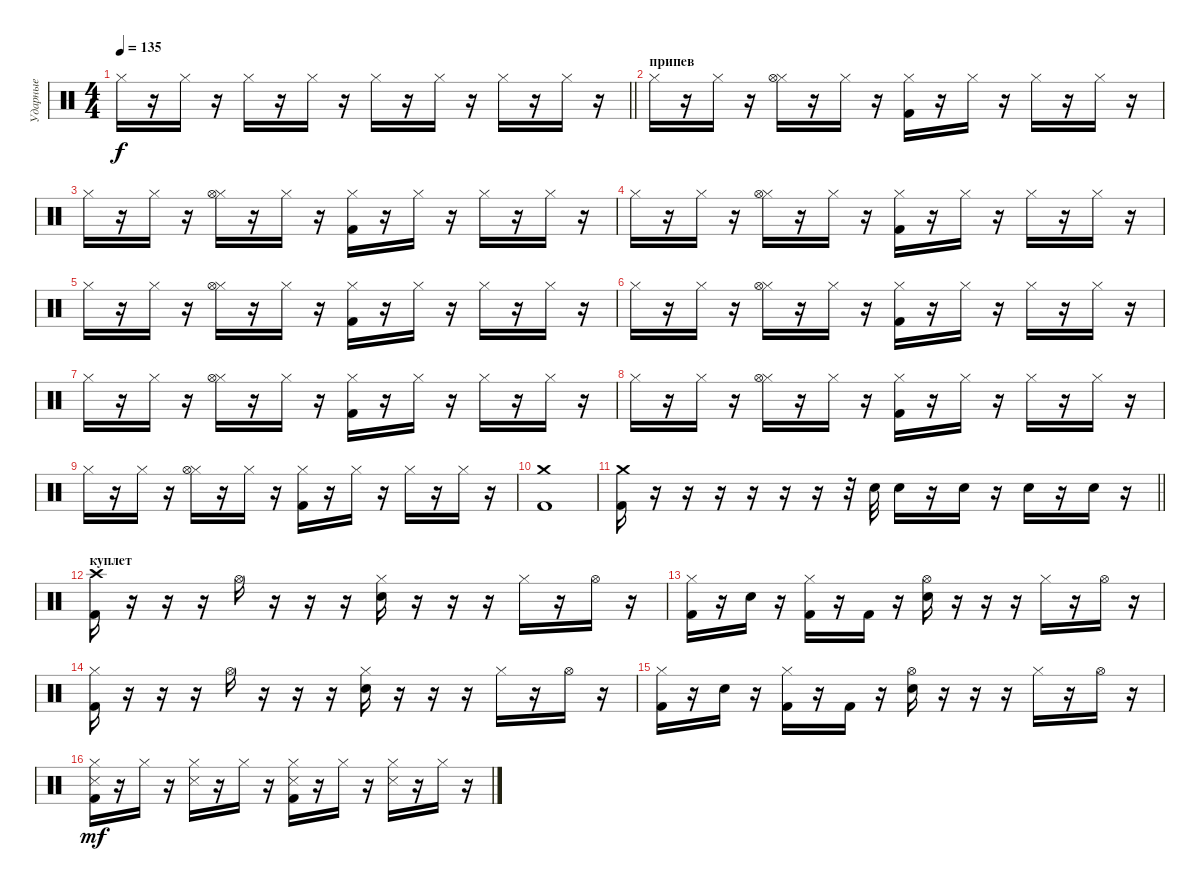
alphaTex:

\track ("Ударные" "Ударные") {instrument percussion}
\staff {score}
\articulation defaults
\ts (4 4)
\tempo 135
\clef neutral
\barLineRight lightlight
\ks c "Hi-Hat (closed)".16{dy f}
r.16 "Hi-Hat (closed)".16 r.16 "Hi-Hat (closed)".16 r.16 "Hi-Hat (closed)".16 r.16 "Hi-Hat (closed)".16 r.16 "Hi-Hat (closed)".16 r.16 "Hi-Hat (closed)".16 r.16 "Hi-Hat (closed)".16 r.16 |
\section ("" "припев")
"Hi-Hat (closed)".16 r.16 "Hi-Hat (closed)".16 r.16 ("Hi-Hat (closed)" "Hi-Hat (open)").16 r.16 "Hi-Hat (closed)".16 r.16 ("Hi-Hat (closed)" "Kick (hit) 2").16 r.16 "Hi-Hat (closed)".16 r.16 "Hi-Hat (closed)".16 r.16 "Hi-Hat (closed)".16 r.16 |
"Hi-Hat (closed)".16 r.16 "Hi-Hat (closed)".16 r.16 ("Hi-Hat (closed)" "Hi-Hat (open)").16 r.16 "Hi-Hat (closed)".16 r.16 ("Hi-Hat (closed)" "Kick (hit) 2").16 r.16 "Hi-Hat (closed)".16 r.16 "Hi-Hat (closed)".16 r.16 "Hi-Hat (closed)".16 r.16 |
"Hi-Hat (closed)".16 r.16 "Hi-Hat (closed)".16 r.16 ("Hi-Hat (closed)" "Hi-Hat (open)").16 r.16 "Hi-Hat (closed)".16 r.16 ("Hi-Hat (closed)" "Kick (hit) 2").16 r.16 "Hi-Hat (closed)".16 r.16 "Hi-Hat (closed)".16 r.16 "Hi-Hat (closed)".16 r.16 |
"Hi-Hat (closed)".16 r.16 "Hi-Hat (closed)".16 r.16 ("Hi-Hat (closed)" "Hi-Hat (open)").16 r.16 "Hi-Hat (closed)".16 r.16 ("Hi-Hat (closed)" "Kick (hit) 2").16 r.16 "Hi-Hat (closed)".16 r.16 "Hi-Hat (closed)".16 r.16 "Hi-Hat (closed)".16 r.16 |
"Hi-Hat (closed)".16 r.16 "Hi-Hat (closed)".16 r.16 ("Hi-Hat (closed)" "Hi-Hat (open)").16 r.16 "Hi-Hat (closed)".16 r.16 ("Hi-Hat (closed)" "Kick (hit) 2").16 r.16 "Hi-Hat (closed)".16 r.16 "Hi-Hat (closed)".16 r.16 "Hi-Hat (closed)".16 r.16 |
"Hi-Hat (closed)".16 r.16 "Hi-Hat (closed)".16 r.16 ("Hi-Hat (closed)" "Hi-Hat (open)").16 r.16 "Hi-Hat (closed)".16 r.16 ("Hi-Hat (closed)" "Kick (hit) 2").16 r.16 "Hi-Hat (closed)".16 r.16 "Hi-Hat (closed)".16 r.16 "Hi-Hat (closed)".16 r.16 |
"Hi-Hat (closed)".16 r.16 "Hi-Hat (closed)".16 r.16 ("Hi-Hat (closed)" "Hi-Hat (open)").16 r.16 "Hi-Hat (closed)".16 r.16 ("Hi-Hat (closed)" "Kick (hit) 2").16 r.16 "Hi-Hat (closed)".16 r.16 "Hi-Hat (closed)".16 r.16 "Hi-Hat (closed)".16 r.16 |
"Hi-Hat (closed)".16 r.16 "Hi-Hat (closed)".16 r.16 ("Hi-Hat (closed)" "Hi-Hat (open)").16 r.16 "Hi-Hat (closed)".16 r.16 ("Hi-Hat (closed)" "Kick (hit) 2").16 r.16 "Hi-Hat (closed)".16 r.16 "Hi-Hat (closed)".16 r.16 "Hi-Hat (closed)".16 r.16 |
("Crash medium (hit)" "Kick (hit) 2").1{volume 13} |
\barLineRight lightlight
("Crash medium (hit)" "Kick (hit) 2").16 r.16 r.16 r.16 r.16 r.16 r.16 r.32 "Electric Snare (hit)".32 "Electric Snare (hit)".16 r.16 "Electric Snare (hit)".16 r.16 "Electric Snare (hit)".16 r.16 "Electric Snare (hit)".16 r.16 |
\section ("" "куплет")
("Crash high (hit)" "Kick (hit) 2").16 r.16 r.16 r.16 "Hi-Hat (open)".16 r.16 r.16 r.16 ("Hi-Hat (closed)" "Electric Snare (hit)").16 r.16 r.16 r.16 "Hi-Hat (closed)".16 r.16 "Hi-Hat (open)".16 r.16 |
("Hi-Hat (closed)" "Kick (hit) 2").16 r.16 "Electric Snare (hit)".16 r.16 ("Hi-Hat (closed)" "Kick (hit) 2").16 r.16 "Kick (hit) 2".16 r.16 ("Hi-Hat (open)" "Electric Snare (hit)").16 r.16 r.16 r.16 "Hi-Hat (closed)".16 r.16 "Hi-Hat (open)".16 r.16 |
("Hi-Hat (closed)" "Kick (hit) 2").16 r.16 r.16 r.16 "Hi-Hat (open)".16 r.16 r.16 r.16 ("Hi-Hat (closed)" "Electric Snare (hit)").16 r.16 r.16 r.16 "Hi-Hat (closed)".16 r.16 "Hi-Hat (open)".16 r.16 |
("Hi-Hat (closed)" "Kick (hit) 2").16 r.16 "Electric Snare (hit)".16 r.16 ("Hi-Hat (closed)" "Kick (hit) 2").16 r.16 "Kick (hit) 2".16 r.16 ("Hi-Hat (open)" "Electric Snare (hit)").16 r.16 r.16 r.16 "Hi-Hat (closed)".16 r.16 "Hi-Hat (open)".16 r.16 |
("Hi-Hat (closed)" "Snare (side stick) 3" "Kick (hit) 2").16{dy mf} r.16 "Hi-Hat (closed)".16 r.16 ("Hi-Hat (closed)" "Snare (side stick) 3").16 r.16 "Hi-Hat (closed)".16 r.16 ("Hi-Hat (closed)" "Snare (side stick) 3" "Kick (hit) 2").16 r.16 "Hi-Hat (closed)".16 r.16 ("Hi-Hat (closed)" "Snare (side stick) 3").16 r.16 "Hi-Hat (closed)".16 r.16
